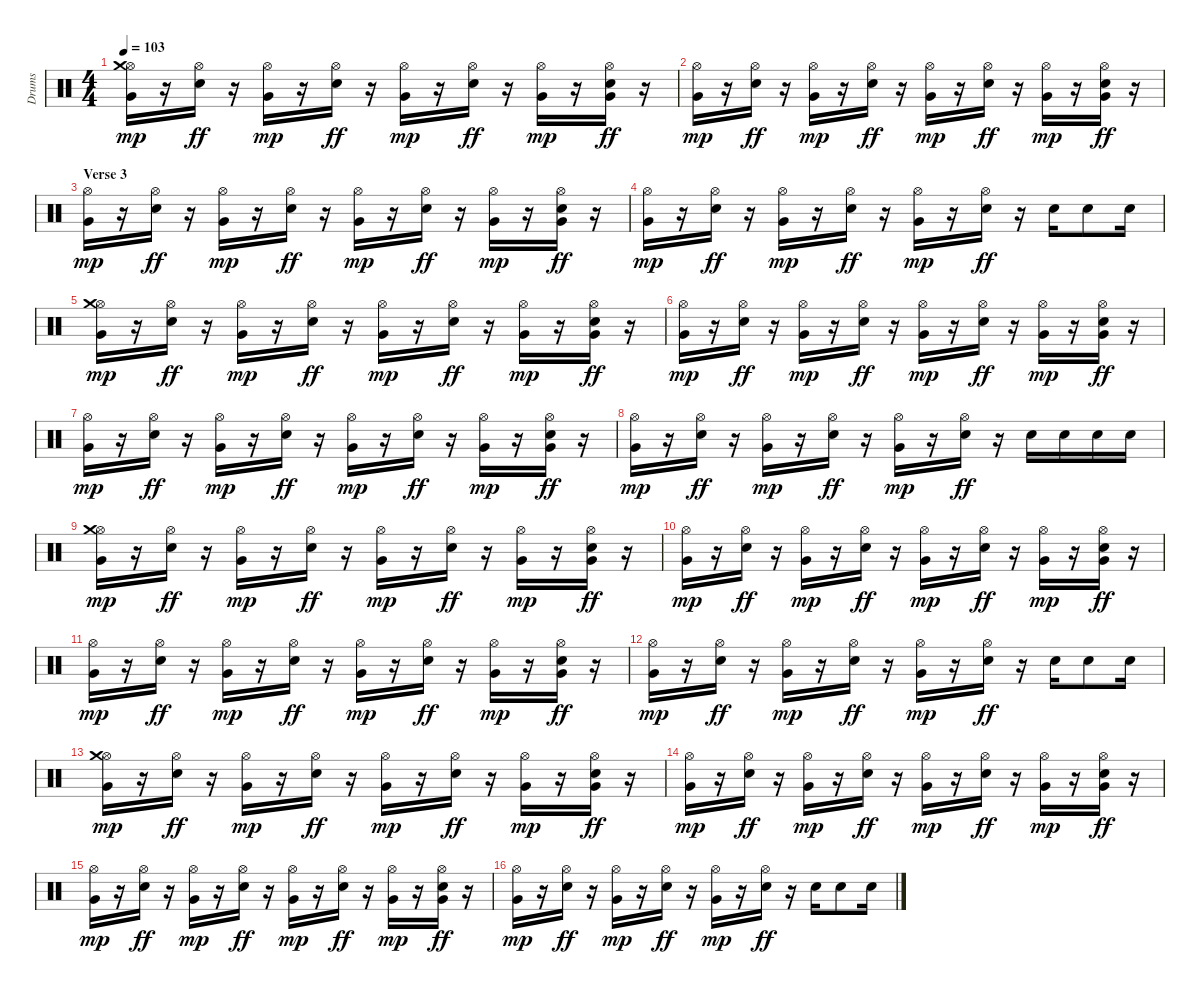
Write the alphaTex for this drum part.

\track ("Drums" "Drums") {instrument percussion}
\staff {score}
\articulation defaults
\ts (4 4)
\tempo 103
\clef neutral
\ks c
("Hi-Hat (open)" "Crash medium (hit)" "Very Low Tom (hit)").16{dy mp} r.16 ("Hi-Hat (open)" "Electric Snare (hit)").16{dy ff} r.16 ("Hi-Hat (open)" "Very Low Tom (hit)").16{dy mp} r.16 ("Hi-Hat (open)" "Electric Snare (hit)").16{dy ff} r.16 ("Hi-Hat (open)" "Very Low Tom (hit)").16{dy mp} r.16 ("Hi-Hat (open)" "Electric Snare (hit)").16{dy ff} r.16 ("Hi-Hat (open)" "Very Low Tom (hit)").16{dy mp} r.16 ("Hi-Hat (open)" "Electric Snare (hit)" "Very Low Tom (hit)").16{dy ff} r.16 |
("Hi-Hat (open)" "Very Low Tom (hit)").16{dy mp} r.16 ("Hi-Hat (open)" "Electric Snare (hit)").16{dy ff} r.16 ("Hi-Hat (open)" "Very Low Tom (hit)").16{dy mp} r.16 ("Hi-Hat (open)" "Electric Snare (hit)").16{dy ff} r.16 ("Hi-Hat (open)" "Very Low Tom (hit)").16{dy mp} r.16 ("Hi-Hat (open)" "Electric Snare (hit)").16{dy ff} r.16 ("Hi-Hat (open)" "Very Low Tom (hit)").16{dy mp} r.16 ("Hi-Hat (open)" "Electric Snare (hit)" "Very Low Tom (hit)").16{dy ff} r.16 |
\section ("" "Verse 3")
("Hi-Hat (open)" "Very Low Tom (hit)").16{dy mp} r.16 ("Hi-Hat (open)" "Electric Snare (hit)").16{dy ff} r.16 ("Hi-Hat (open)" "Very Low Tom (hit)").16{dy mp} r.16 ("Hi-Hat (open)" "Electric Snare (hit)").16{dy ff} r.16 ("Hi-Hat (open)" "Very Low Tom (hit)").16{dy mp} r.16 ("Hi-Hat (open)" "Electric Snare (hit)").16{dy ff} r.16 ("Hi-Hat (open)" "Very Low Tom (hit)").16{dy mp} r.16 ("Hi-Hat (open)" "Electric Snare (hit)" "Very Low Tom (hit)").16{dy ff} r.16 |
("Hi-Hat (open)" "Very Low Tom (hit)").16{dy mp} r.16 ("Hi-Hat (open)" "Electric Snare (hit)").16{dy ff} r.16 ("Hi-Hat (open)" "Very Low Tom (hit)").16{dy mp} r.16 ("Hi-Hat (open)" "Electric Snare (hit)").16{dy ff} r.16 ("Hi-Hat (open)" "Very Low Tom (hit)").16{dy mp} r.16 ("Hi-Hat (open)" "Electric Snare (hit)").16{dy ff} r.16 "Electric Snare (hit)".16 "Electric Snare (hit)".8 "Electric Snare (hit)".16 |
("Hi-Hat (open)" "Crash medium (hit)" "Very Low Tom (hit)").16{dy mp} r.16 ("Hi-Hat (open)" "Electric Snare (hit)").16{dy ff} r.16 ("Hi-Hat (open)" "Very Low Tom (hit)").16{dy mp} r.16 ("Hi-Hat (open)" "Electric Snare (hit)").16{dy ff} r.16 ("Hi-Hat (open)" "Very Low Tom (hit)").16{dy mp} r.16 ("Hi-Hat (open)" "Electric Snare (hit)").16{dy ff} r.16 ("Hi-Hat (open)" "Very Low Tom (hit)").16{dy mp} r.16 ("Hi-Hat (open)" "Electric Snare (hit)" "Very Low Tom (hit)").16{dy ff} r.16 |
("Hi-Hat (open)" "Very Low Tom (hit)").16{dy mp} r.16 ("Hi-Hat (open)" "Electric Snare (hit)").16{dy ff} r.16 ("Hi-Hat (open)" "Very Low Tom (hit)").16{dy mp} r.16 ("Hi-Hat (open)" "Electric Snare (hit)").16{dy ff} r.16 ("Hi-Hat (open)" "Very Low Tom (hit)").16{dy mp} r.16 ("Hi-Hat (open)" "Electric Snare (hit)").16{dy ff} r.16 ("Hi-Hat (open)" "Very Low Tom (hit)").16{dy mp} r.16 ("Hi-Hat (open)" "Electric Snare (hit)" "Very Low Tom (hit)").16{dy ff} r.16 |
("Hi-Hat (open)" "Very Low Tom (hit)").16{dy mp} r.16 ("Hi-Hat (open)" "Electric Snare (hit)").16{dy ff} r.16 ("Hi-Hat (open)" "Very Low Tom (hit)").16{dy mp} r.16 ("Hi-Hat (open)" "Electric Snare (hit)").16{dy ff} r.16 ("Hi-Hat (open)" "Very Low Tom (hit)").16{dy mp} r.16 ("Hi-Hat (open)" "Electric Snare (hit)").16{dy ff} r.16 ("Hi-Hat (open)" "Very Low Tom (hit)").16{dy mp} r.16 ("Hi-Hat (open)" "Electric Snare (hit)" "Very Low Tom (hit)").16{dy ff} r.16 |
("Hi-Hat (open)" "Very Low Tom (hit)").16{dy mp} r.16 ("Hi-Hat (open)" "Electric Snare (hit)").16{dy ff} r.16 ("Hi-Hat (open)" "Very Low Tom (hit)").16{dy mp} r.16 ("Hi-Hat (open)" "Electric Snare (hit)").16{dy ff} r.16 ("Hi-Hat (open)" "Very Low Tom (hit)").16{dy mp} r.16 ("Hi-Hat (open)" "Electric Snare (hit)").16{dy ff} r.16 "Electric Snare (hit)".16 "Electric Snare (hit)".16 "Electric Snare (hit)".16 "Electric Snare (hit)".16 |
("Hi-Hat (open)" "Crash medium (hit)" "Very Low Tom (hit)").16{dy mp} r.16 ("Hi-Hat (open)" "Electric Snare (hit)").16{dy ff} r.16 ("Hi-Hat (open)" "Very Low Tom (hit)").16{dy mp} r.16 ("Hi-Hat (open)" "Electric Snare (hit)").16{dy ff} r.16 ("Hi-Hat (open)" "Very Low Tom (hit)").16{dy mp} r.16 ("Hi-Hat (open)" "Electric Snare (hit)").16{dy ff} r.16 ("Hi-Hat (open)" "Very Low Tom (hit)").16{dy mp} r.16 ("Hi-Hat (open)" "Electric Snare (hit)" "Very Low Tom (hit)").16{dy ff} r.16 |
("Hi-Hat (open)" "Very Low Tom (hit)").16{dy mp} r.16 ("Hi-Hat (open)" "Electric Snare (hit)").16{dy ff} r.16 ("Hi-Hat (open)" "Very Low Tom (hit)").16{dy mp} r.16 ("Hi-Hat (open)" "Electric Snare (hit)").16{dy ff} r.16 ("Hi-Hat (open)" "Very Low Tom (hit)").16{dy mp} r.16 ("Hi-Hat (open)" "Electric Snare (hit)").16{dy ff} r.16 ("Hi-Hat (open)" "Very Low Tom (hit)").16{dy mp} r.16 ("Hi-Hat (open)" "Electric Snare (hit)" "Very Low Tom (hit)").16{dy ff} r.16 |
("Hi-Hat (open)" "Very Low Tom (hit)").16{dy mp} r.16 ("Hi-Hat (open)" "Electric Snare (hit)").16{dy ff} r.16 ("Hi-Hat (open)" "Very Low Tom (hit)").16{dy mp} r.16 ("Hi-Hat (open)" "Electric Snare (hit)").16{dy ff} r.16 ("Hi-Hat (open)" "Very Low Tom (hit)").16{dy mp} r.16 ("Hi-Hat (open)" "Electric Snare (hit)").16{dy ff} r.16 ("Hi-Hat (open)" "Very Low Tom (hit)").16{dy mp} r.16 ("Hi-Hat (open)" "Electric Snare (hit)" "Very Low Tom (hit)").16{dy ff} r.16 |
("Hi-Hat (open)" "Very Low Tom (hit)").16{dy mp} r.16 ("Hi-Hat (open)" "Electric Snare (hit)").16{dy ff} r.16 ("Hi-Hat (open)" "Very Low Tom (hit)").16{dy mp} r.16 ("Hi-Hat (open)" "Electric Snare (hit)").16{dy ff} r.16 ("Hi-Hat (open)" "Very Low Tom (hit)").16{dy mp} r.16 ("Hi-Hat (open)" "Electric Snare (hit)").16{dy ff} r.16 "Electric Snare (hit)".16 "Electric Snare (hit)".8 "Electric Snare (hit)".16 |
("Hi-Hat (open)" "Crash medium (hit)" "Very Low Tom (hit)").16{dy mp} r.16 ("Hi-Hat (open)" "Electric Snare (hit)").16{dy ff} r.16 ("Hi-Hat (open)" "Very Low Tom (hit)").16{dy mp} r.16 ("Hi-Hat (open)" "Electric Snare (hit)").16{dy ff} r.16 ("Hi-Hat (open)" "Very Low Tom (hit)").16{dy mp} r.16 ("Hi-Hat (open)" "Electric Snare (hit)").16{dy ff} r.16 ("Hi-Hat (open)" "Very Low Tom (hit)").16{dy mp} r.16 ("Hi-Hat (open)" "Electric Snare (hit)" "Very Low Tom (hit)").16{dy ff} r.16 |
("Hi-Hat (open)" "Very Low Tom (hit)").16{dy mp} r.16 ("Hi-Hat (open)" "Electric Snare (hit)").16{dy ff} r.16 ("Hi-Hat (open)" "Very Low Tom (hit)").16{dy mp} r.16 ("Hi-Hat (open)" "Electric Snare (hit)").16{dy ff} r.16 ("Hi-Hat (open)" "Very Low Tom (hit)").16{dy mp} r.16 ("Hi-Hat (open)" "Electric Snare (hit)").16{dy ff} r.16 ("Hi-Hat (open)" "Very Low Tom (hit)").16{dy mp} r.16 ("Hi-Hat (open)" "Electric Snare (hit)" "Very Low Tom (hit)").16{dy ff} r.16 |
("Hi-Hat (open)" "Very Low Tom (hit)").16{dy mp} r.16 ("Hi-Hat (open)" "Electric Snare (hit)").16{dy ff} r.16 ("Hi-Hat (open)" "Very Low Tom (hit)").16{dy mp} r.16 ("Hi-Hat (open)" "Electric Snare (hit)").16{dy ff} r.16 ("Hi-Hat (open)" "Very Low Tom (hit)").16{dy mp} r.16 ("Hi-Hat (open)" "Electric Snare (hit)").16{dy ff} r.16 ("Hi-Hat (open)" "Very Low Tom (hit)").16{dy mp} r.16 ("Hi-Hat (open)" "Electric Snare (hit)" "Very Low Tom (hit)").16{dy ff} r.16 |
("Hi-Hat (open)" "Very Low Tom (hit)").16{dy mp} r.16 ("Hi-Hat (open)" "Electric Snare (hit)").16{dy ff} r.16 ("Hi-Hat (open)" "Very Low Tom (hit)").16{dy mp} r.16 ("Hi-Hat (open)" "Electric Snare (hit)").16{dy ff} r.16 ("Hi-Hat (open)" "Very Low Tom (hit)").16{dy mp} r.16 ("Hi-Hat (open)" "Electric Snare (hit)").16{dy ff} r.16 "Electric Snare (hit)".16 "Electric Snare (hit)".8 "Electric Snare (hit)".16
